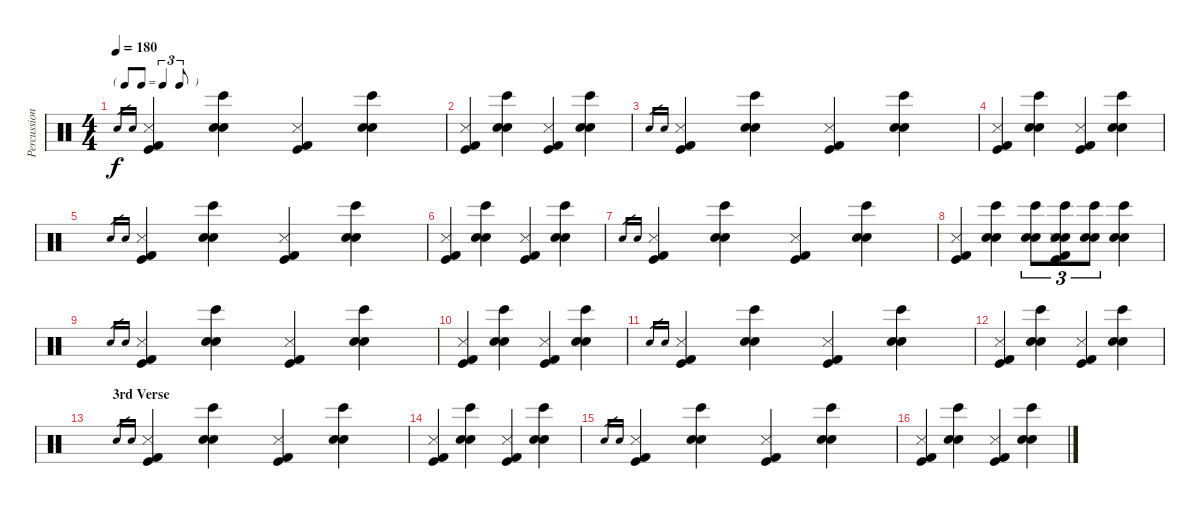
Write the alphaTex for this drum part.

\track ("Percussion" "Percussion") {instrument percussion}
\staff {score}
\articulation defaults
\ts (4 4)
\tf triplet8th
\tempo 180
\clef neutral
\ks c "Electric Snare (hit)".16{gr dy f} "Snare (hit) 2".16{gr}
("Snare (side stick) 3" "Kick (hit)" "Kick (hit) 2").4 ("Bongo High (hit)" "Electric Snare (hit)" "Snare (hit) 2").4 ("Snare (side stick) 3" "Kick (hit)" "Kick (hit) 2").4 ("Bongo High (hit)" "Electric Snare (hit)" "Snare (hit) 2").4 |
("Snare (side stick) 3" "Kick (hit)" "Kick (hit) 2").4 ("Bongo High (hit)" "Electric Snare (hit)" "Snare (hit) 2").4 ("Snare (side stick) 3" "Kick (hit)" "Kick (hit) 2").4 ("Bongo High (hit)" "Electric Snare (hit)" "Snare (hit) 2").4 |
"Electric Snare (hit)".16{gr} "Snare (hit) 2".16{gr} ("Snare (side stick) 3" "Kick (hit)" "Kick (hit) 2").4 ("Bongo High (hit)" "Electric Snare (hit)" "Snare (hit) 2").4 ("Snare (side stick) 3" "Kick (hit)" "Kick (hit) 2").4 ("Bongo High (hit)" "Electric Snare (hit)" "Snare (hit) 2").4 |
("Snare (side stick) 3" "Kick (hit)" "Kick (hit) 2").4 ("Bongo High (hit)" "Electric Snare (hit)" "Snare (hit) 2").4 ("Snare (side stick) 3" "Kick (hit)" "Kick (hit) 2").4 ("Bongo High (hit)" "Electric Snare (hit)" "Snare (hit) 2").4 |
"Electric Snare (hit)".16{gr} "Snare (hit) 2".16{gr} ("Snare (side stick) 3" "Kick (hit)" "Kick (hit) 2").4 ("Bongo High (hit)" "Electric Snare (hit)" "Snare (hit) 2").4 ("Snare (side stick) 3" "Kick (hit)" "Kick (hit) 2").4 ("Bongo High (hit)" "Electric Snare (hit)" "Snare (hit) 2").4 |
("Snare (side stick) 3" "Kick (hit)" "Kick (hit) 2").4 ("Bongo High (hit)" "Electric Snare (hit)" "Snare (hit) 2").4 ("Snare (side stick) 3" "Kick (hit)" "Kick (hit) 2").4 ("Bongo High (hit)" "Electric Snare (hit)" "Snare (hit) 2").4 |
"Electric Snare (hit)".16{gr} "Snare (hit) 2".16{gr} ("Snare (side stick) 3" "Kick (hit)" "Kick (hit) 2").4 ("Bongo High (hit)" "Electric Snare (hit)" "Snare (hit) 2").4 ("Snare (side stick) 3" "Kick (hit)" "Kick (hit) 2").4 ("Bongo High (hit)" "Electric Snare (hit)" "Snare (hit) 2").4 |
("Snare (side stick) 3" "Kick (hit)" "Kick (hit) 2").4 ("Bongo High (hit)" "Electric Snare (hit)" "Snare (hit) 2").4 ("Bongo High (hit)" "Electric Snare (hit)" "Snare (hit) 2").8{tu (3 2)} ("Bongo High (hit)" "Electric Snare (hit)" "Snare (hit) 2" "Snare (side stick) 3" "Kick (hit)" "Kick (hit) 2").8{tu (3 2)} ("Bongo High (hit)" "Electric Snare (hit)" "Snare (hit) 2").8{tu (3 2)} ("Bongo High (hit)" "Electric Snare (hit)" "Snare (hit) 2").4 |
"Electric Snare (hit)".16{gr} "Snare (hit) 2".16{gr} ("Snare (side stick) 3" "Kick (hit)" "Kick (hit) 2").4 ("Bongo High (hit)" "Electric Snare (hit)" "Snare (hit) 2").4 ("Snare (side stick) 3" "Kick (hit)" "Kick (hit) 2").4 ("Bongo High (hit)" "Electric Snare (hit)" "Snare (hit) 2").4 |
("Snare (side stick) 3" "Kick (hit)" "Kick (hit) 2").4 ("Bongo High (hit)" "Electric Snare (hit)" "Snare (hit) 2").4 ("Snare (side stick) 3" "Kick (hit)" "Kick (hit) 2").4 ("Bongo High (hit)" "Electric Snare (hit)" "Snare (hit) 2").4 |
"Electric Snare (hit)".16{gr} "Snare (hit) 2".16{gr} ("Snare (side stick) 3" "Kick (hit)" "Kick (hit) 2").4 ("Bongo High (hit)" "Electric Snare (hit)" "Snare (hit) 2").4 ("Snare (side stick) 3" "Kick (hit)" "Kick (hit) 2").4 ("Bongo High (hit)" "Electric Snare (hit)" "Snare (hit) 2").4 |
("Snare (side stick) 3" "Kick (hit)" "Kick (hit) 2").4 ("Bongo High (hit)" "Electric Snare (hit)" "Snare (hit) 2").4 ("Snare (side stick) 3" "Kick (hit)" "Kick (hit) 2").4 ("Bongo High (hit)" "Electric Snare (hit)" "Snare (hit) 2").4 |
\section ("" "3rd Verse")
"Electric Snare (hit)".16{gr} "Snare (hit) 2".16{gr} ("Snare (side stick) 3" "Kick (hit)" "Kick (hit) 2").4 ("Bongo High (hit)" "Electric Snare (hit)" "Snare (hit) 2").4 ("Snare (side stick) 3" "Kick (hit)" "Kick (hit) 2").4 ("Bongo High (hit)" "Electric Snare (hit)" "Snare (hit) 2").4 |
("Snare (side stick) 3" "Kick (hit)" "Kick (hit) 2").4 ("Bongo High (hit)" "Electric Snare (hit)" "Snare (hit) 2").4 ("Snare (side stick) 3" "Kick (hit)" "Kick (hit) 2").4 ("Bongo High (hit)" "Electric Snare (hit)" "Snare (hit) 2").4 |
"Electric Snare (hit)".16{gr} "Snare (hit) 2".16{gr} ("Snare (side stick) 3" "Kick (hit)" "Kick (hit) 2").4 ("Bongo High (hit)" "Electric Snare (hit)" "Snare (hit) 2").4 ("Snare (side stick) 3" "Kick (hit)" "Kick (hit) 2").4 ("Bongo High (hit)" "Electric Snare (hit)" "Snare (hit) 2").4 |
("Snare (side stick) 3" "Kick (hit)" "Kick (hit) 2").4 ("Bongo High (hit)" "Electric Snare (hit)" "Snare (hit) 2").4 ("Snare (side stick) 3" "Kick (hit)" "Kick (hit) 2").4 ("Bongo High (hit)" "Electric Snare (hit)" "Snare (hit) 2").4
